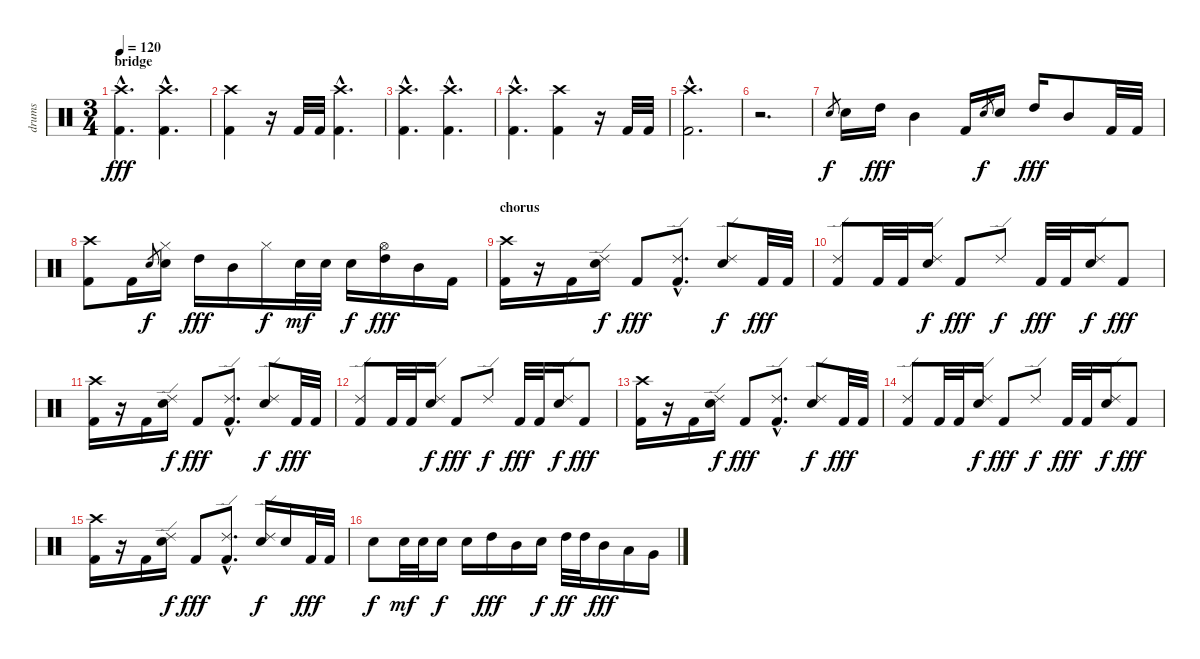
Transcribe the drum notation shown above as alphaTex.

\track ("drums" "drums") {instrument percussion}
\staff {score}
\articulation defaults
\ts (3 4)
\section ("" "bridge")
\tempo 120
\clef neutral
\ks c
("Crash high (hit)"{hac} "Kick (hit) 2"{hac}).4{d dy fff} ("Crash high (hit)"{hac} "Kick (hit) 2"{hac}).4{d} |
("Crash high (hit)" "Kick (hit) 2").4 r.16 "Kick (hit) 2".32 "Kick (hit) 2".32 ("Crash high (hit)"{hac} "Kick (hit) 2"{hac}).4{d} |
("Crash high (hit)"{hac} "Kick (hit) 2"{hac}).4{d} ("Crash high (hit)"{hac} "Kick (hit) 2"{hac}).4{d} |
("Crash high (hit)"{hac} "Kick (hit) 2"{hac}).4{d} ("Crash high (hit)" "Kick (hit) 2").4 r.16 "Kick (hit) 2".32 "Kick (hit) 2".32 |
("Crash high (hit)"{hac} "Kick (hit) 2"{hac}).2{d} |
r.2{d} |
"Snare (hit) 2".8{gr dy f} "Snare (hit) 2".16 "High Tom (hit)".16{dy fff} "Mid Tom (hit)".4 "Kick (hit) 2".16 "Snare (hit) 2".8{gr dy f} "Snare (hit) 2".16 "High Tom (hit)".16{dy fff} "Mid Tom (hit)".8 "Kick (hit) 2".32 "Kick (hit) 2".32 |
("Crash high (hit)" "Kick (hit) 2").8 "Kick (hit) 2".16 "Snare (hit) 2".8{gr dy f} ("Hi-Hat (closed)" "Snare (hit) 2").16 "High Tom (hit)".16{dy fff} "Mid Tom (hit)".16 "Hi-Hat (closed)".16{dy f} "Snare (hit) 2".32{dy mf} "Snare (hit) 2".32 "Snare (hit) 2".16{dy f} ("Hi-Hat (open)" "High Tom (hit)").16{dy fff} "Mid Tom (hit)".16 "Kick (hit) 2".16 |
\section ("" "chorus")
("Crash high (hit)" "Kick (hit) 2").16 r.16 "Kick (hit) 2".16 ("Ride (edge) 2" "Snare (hit) 2").16{dy f} "Kick (hit) 2".8{dy fff} ("Ride (edge) 2"{hac} "Kick (hit) 2"{hac}).8{d} ("Ride (edge) 2" "Snare (hit) 2").8{dy f} "Kick (hit) 2".32{dy fff} "Kick (hit) 2".32 |
("Ride (edge) 2" "Kick (hit) 2").8 "Kick (hit) 2".32 "Kick (hit) 2".32 ("Ride (edge) 2" "Snare (hit) 2").16{dy f} "Kick (hit) 2".8{dy fff} "Ride (edge) 2".8{dy f} "Kick (hit) 2".32{dy fff} "Kick (hit) 2".32 ("Ride (edge) 2" "Snare (hit) 2").16{dy f} "Kick (hit) 2".8{dy fff} |
("Crash high (hit)" "Kick (hit) 2").16 r.16 "Kick (hit) 2".16 ("Ride (edge) 2" "Snare (hit) 2").16{dy f} "Kick (hit) 2".8{dy fff} ("Ride (edge) 2"{hac} "Kick (hit) 2"{hac}).8{d} ("Ride (edge) 2" "Snare (hit) 2").8{dy f} "Kick (hit) 2".32{dy fff} "Kick (hit) 2".32 |
("Ride (edge) 2" "Kick (hit) 2").8 "Kick (hit) 2".32 "Kick (hit) 2".32 ("Ride (edge) 2" "Snare (hit) 2").16{dy f} "Kick (hit) 2".8{dy fff} "Ride (edge) 2".8{dy f} "Kick (hit) 2".32{dy fff} "Kick (hit) 2".32 ("Ride (edge) 2" "Snare (hit) 2").16{dy f} "Kick (hit) 2".8{dy fff} |
("Crash high (hit)" "Kick (hit) 2").16 r.16 "Kick (hit) 2".16 ("Ride (edge) 2" "Snare (hit) 2").16{dy f} "Kick (hit) 2".8{dy fff} ("Ride (edge) 2"{hac} "Kick (hit) 2"{hac}).8{d} ("Ride (edge) 2" "Snare (hit) 2").8{dy f} "Kick (hit) 2".32{dy fff} "Kick (hit) 2".32 |
("Ride (edge) 2" "Kick (hit) 2").8 "Kick (hit) 2".32 "Kick (hit) 2".32 ("Ride (edge) 2" "Snare (hit) 2").16{dy f} "Kick (hit) 2".8{dy fff} "Ride (edge) 2".8{dy f} "Kick (hit) 2".32{dy fff} "Kick (hit) 2".32 ("Ride (edge) 2" "Snare (hit) 2").16{dy f} "Kick (hit) 2".8{dy fff} |
("Crash high (hit)" "Kick (hit) 2").16 r.16 "Kick (hit) 2".16 ("Ride (edge) 2" "Snare (hit) 2").16{dy f} "Kick (hit) 2".8{dy fff} ("Ride (edge) 2"{hac} "Kick (hit) 2"{hac}).8{d} ("Ride (edge) 2" "Snare (hit) 2").16{dy f} "Snare (hit) 2".16 "Kick (hit) 2".32{dy fff} "Kick (hit) 2".32 |
"Snare (hit) 2".8{dy f} "Snare (hit) 2".32{dy mf} "Snare (hit) 2".32 "Snare (hit) 2".16{dy f} "Snare (hit) 2".16 "High Tom (hit)".16{dy fff} "Mid Tom (hit)".16 "Snare (hit) 2".16{dy f} "High Tom (hit)".32{dy ff} "High Tom (hit)".32 "Mid Tom (hit)".16{dy fff} "Low Tom (hit)".16 "Very Low Tom (hit)".16
